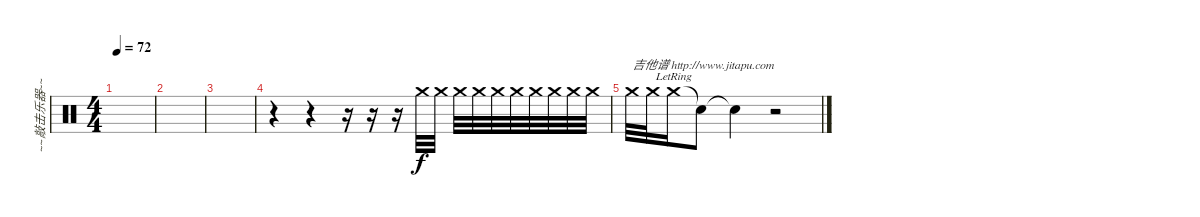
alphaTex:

\track ("~~敲击乐器~~" "~~敲击乐器~~") {instrument percussion}
\staff {score}
\articulation defaults
\ts (4 4)
\tempo 72
\clef neutral
\ks c
|
|
|
r.4 r.4 r.16 r.16 r.16 "Crash medium (hit)".32 "Crash medium (hit)".32 "Crash medium (hit)".32 "Crash medium (hit)".32 "Crash medium (hit)".32 "Crash medium (hit)".32 "Crash medium (hit)".32 "Crash medium (hit)".32 "Crash medium (hit)".32 "Crash medium (hit)".32 |
"Crash medium (hit)".32{txt "吉他谱 http://www.jitapu.com"} "Crash medium (hit)".32 "Crash medium (hit)"{lr}.16 "Snare (hit)"{t}.8 "Snare (hit)"{t}.4 r.2
